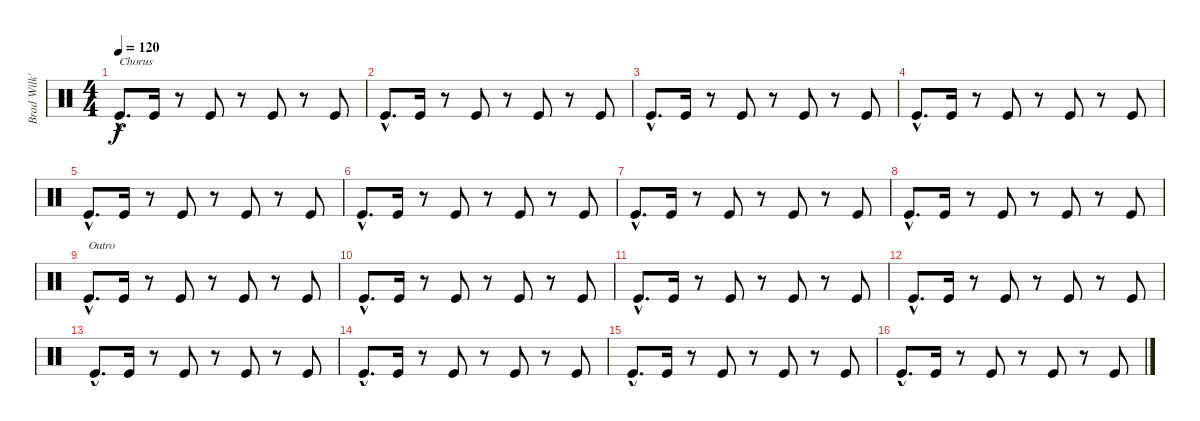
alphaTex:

\track ("Brad Wilk's Bass Drum" "Brad Wilk'") {instrument percussion}
\staff {score}
\articulation defaults
\ts (4 4)
\tempo 120
\clef neutral
\ks c "Kick (hit)"{hac}.8{d txt "Chorus" dy f} "Kick (hit)".16
r.8 "Kick (hit)".8 r.8 "Kick (hit)".8 r.8 "Kick (hit)".8 |
"Kick (hit)"{hac}.8{d} "Kick (hit)".16 r.8 "Kick (hit)".8 r.8 "Kick (hit)".8 r.8 "Kick (hit)".8 |
"Kick (hit)"{hac}.8{d} "Kick (hit)".16 r.8 "Kick (hit)".8 r.8 "Kick (hit)".8 r.8 "Kick (hit)".8 |
"Kick (hit)"{hac}.8{d} "Kick (hit)".16 r.8 "Kick (hit)".8 r.8 "Kick (hit)".8 r.8 "Kick (hit)".8 |
"Kick (hit)"{hac}.8{d} "Kick (hit)".16 r.8 "Kick (hit)".8 r.8 "Kick (hit)".8 r.8 "Kick (hit)".8 |
"Kick (hit)"{hac}.8{d} "Kick (hit)".16 r.8 "Kick (hit)".8 r.8 "Kick (hit)".8 r.8 "Kick (hit)".8 |
"Kick (hit)"{hac}.8{d} "Kick (hit)".16 r.8 "Kick (hit)".8 r.8 "Kick (hit)".8 r.8 "Kick (hit)".8 |
"Kick (hit)"{hac}.8{d} "Kick (hit)".16 r.8 "Kick (hit)".8 r.8 "Kick (hit)".8 r.8 "Kick (hit)".8 |
"Kick (hit)"{hac}.8{d txt "Outro"} "Kick (hit)".16 r.8 "Kick (hit)".8 r.8 "Kick (hit)".8 r.8 "Kick (hit)".8 |
"Kick (hit)"{hac}.8{d} "Kick (hit)".16 r.8 "Kick (hit)".8 r.8 "Kick (hit)".8 r.8 "Kick (hit)".8 |
"Kick (hit)"{hac}.8{d} "Kick (hit)".16 r.8 "Kick (hit)".8 r.8 "Kick (hit)".8 r.8 "Kick (hit)".8 |
"Kick (hit)"{hac}.8{d} "Kick (hit)".16 r.8 "Kick (hit)".8 r.8 "Kick (hit)".8 r.8 "Kick (hit)".8 |
"Kick (hit)"{hac}.8{d} "Kick (hit)".16 r.8 "Kick (hit)".8 r.8 "Kick (hit)".8 r.8 "Kick (hit)".8 |
"Kick (hit)"{hac}.8{d} "Kick (hit)".16 r.8 "Kick (hit)".8 r.8 "Kick (hit)".8 r.8 "Kick (hit)".8 |
"Kick (hit)"{hac}.8{d} "Kick (hit)".16 r.8 "Kick (hit)".8 r.8 "Kick (hit)".8 r.8 "Kick (hit)".8 |
"Kick (hit)"{hac}.8{d} "Kick (hit)".16 r.8 "Kick (hit)".8 r.8 "Kick (hit)".8 r.8 "Kick (hit)".8
